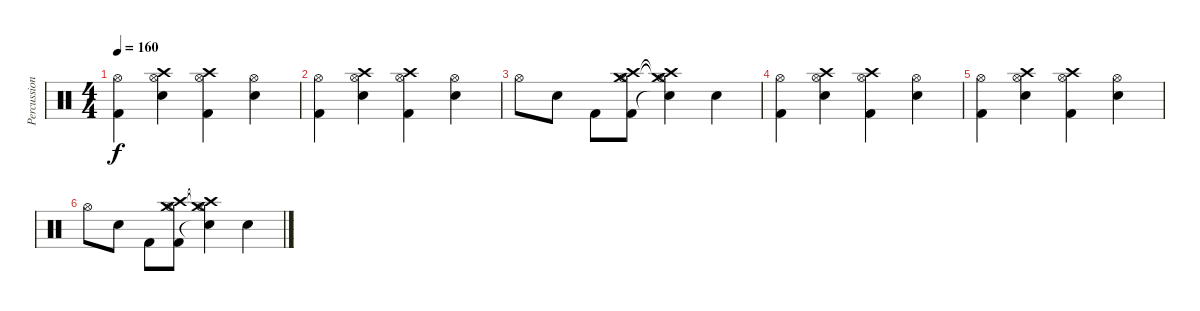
\track ("Percussion" "Percussion") {instrument percussion}
\staff {score}
\articulation defaults
\ts (4 4)
\tempo 160
\clef neutral
\ks c
("Hi-Hat (open)" "Kick (hit) 2").4{dy f} ("Hi-Hat (open)" "Crash high (hit)" "Snare (hit) 2").4 ("Hi-Hat (open)" "Crash high (hit)" "Kick (hit) 2").4 ("Hi-Hat (open)" "Snare (hit) 2").4 |
("Hi-Hat (open)" "Kick (hit) 2").4 ("Hi-Hat (open)" "Crash high (hit)" "Snare (hit) 2").4 ("Hi-Hat (open)" "Crash high (hit)" "Kick (hit) 2").4 ("Hi-Hat (open)" "Snare (hit) 2").4 |
"Hi-Hat (open)".8 "Snare (hit) 2".8 "Kick (hit) 2".8 ("Crash high (hit)" "Hi-Hat (open)" "Crash medium (hit)" "Kick (hit) 2").8 ("Crash high (hit)"{t} "Hi-Hat (open)"{t} "Crash medium (hit)"{t} "Snare (hit) 2"{t}).4 "Snare (hit) 2".4 |
("Hi-Hat (open)" "Kick (hit) 2").4 ("Hi-Hat (open)" "Crash high (hit)" "Snare (hit) 2").4 ("Hi-Hat (open)" "Crash high (hit)" "Kick (hit) 2").4 ("Hi-Hat (open)" "Snare (hit) 2").4 |
("Hi-Hat (open)" "Kick (hit) 2").4 ("Hi-Hat (open)" "Crash high (hit)" "Snare (hit) 2").4 ("Hi-Hat (open)" "Crash high (hit)" "Kick (hit) 2").4 ("Hi-Hat (open)" "Snare (hit) 2").4 |
"Hi-Hat (open)".8 "Snare (hit) 2".8 "Kick (hit) 2".8 ("Crash high (hit)" "Hi-Hat (open)" "Crash medium (hit)" "Kick (hit) 2").8 ("Crash high (hit)"{t} "Hi-Hat (open)"{t} "Crash medium (hit)"{t} "Snare (hit) 2"{t}).4 "Snare (hit) 2".4
